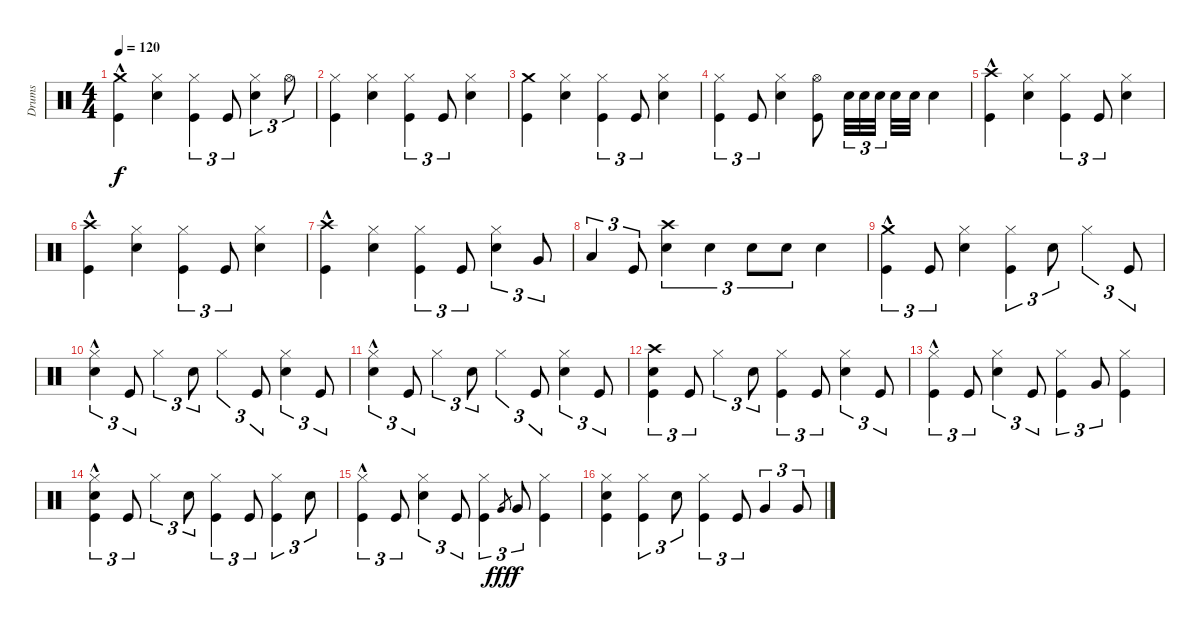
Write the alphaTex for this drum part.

\track ("Drums" "Drums") {instrument percussion}
\staff {score}
\articulation defaults
\ts (4 4)
\tempo 120
\clef neutral
\ks c
("Kick (hit)"{hac} "Crash medium (hit)").4{dy f} ("Snare (hit) 2" "Hi-Hat (closed)").4 ("Kick (hit)" "Hi-Hat (closed)").4{tu (3 2)} "Kick (hit)".8{tu (3 2)} ("Snare (hit) 2" "Hi-Hat (closed)").4{tu (3 2)} "Hi-Hat (open)".8{tu (3 2)} |
("Kick (hit)" "Hi-Hat (closed)").4 ("Snare (hit) 2" "Hi-Hat (closed)").4 ("Kick (hit)" "Hi-Hat (closed)").4{tu (3 2)} "Kick (hit)".8{tu (3 2)} ("Snare (hit) 2" "Hi-Hat (closed)").4 |
("Kick (hit)" "Crash medium (hit)").4 ("Snare (hit) 2" "Hi-Hat (closed)").4 ("Kick (hit)" "Hi-Hat (closed)").4{tu (3 2)} "Kick (hit)".8{tu (3 2)} ("Snare (hit) 2" "Hi-Hat (closed)").4 |
("Kick (hit)" "Hi-Hat (closed)").4{tu (3 2)} "Kick (hit)".8{tu (3 2)} ("Snare (hit) 2" "Hi-Hat (closed)").4 ("Kick (hit)" "Hi-Hat (open)").8 "Snare (hit) 2".32{tu (3 2)} "Snare (hit) 2".32{tu (3 2)} "Snare (hit) 2".32{tu (3 2)} "Snare (hit) 2".32 "Snare (hit) 2".32 "Snare (hit) 2".4 |
("Kick (hit)"{hac} "Crash high (hit)").4 ("Snare (hit) 2" "Hi-Hat (closed)").4 ("Kick (hit)" "Hi-Hat (closed)").4{tu (3 2)} "Kick (hit)".8{tu (3 2)} ("Snare (hit) 2" "Hi-Hat (closed)").4 |
("Kick (hit)"{hac} "Crash high (hit)").4 ("Snare (hit) 2" "Hi-Hat (closed)").4 ("Kick (hit)" "Hi-Hat (closed)").4{tu (3 2)} "Kick (hit)".8{tu (3 2)} ("Snare (hit) 2" "Hi-Hat (closed)").4 |
("Kick (hit)"{hac} "Crash high (hit)").4 ("Snare (hit) 2" "Hi-Hat (closed)").4 ("Kick (hit)" "Hi-Hat (closed)").4{tu (3 2)} "Kick (hit)".8{tu (3 2)} ("Snare (hit) 2" "Hi-Hat (closed)").4{tu (3 2)} "Very Low Tom (hit)".8{tu (3 2)} |
"Low Floor Tom (hit)".4{tu (3 2)} "Kick (hit)".8{tu (3 2)} ("Snare (hit) 2" "Crash high (hit)").4{tu (3 2)} "Snare (hit) 2".4{tu (3 2)} "Snare (hit) 2".8{tu (3 2)} "Snare (hit) 2".8{tu (3 2)} "Snare (hit) 2".4 |
("Kick (hit)" "Crash medium (hit)"{hac}).4{tu (3 2)} "Kick (hit)".8{tu (3 2)} ("Snare (hit) 2" "Hi-Hat (closed)").4 ("Kick (hit)" "Hi-Hat (closed)").4{tu (3 2)} "Snare (hit) 2".8{tu (3 2)} "Hi-Hat (closed)".4{tu (3 2)} "Kick (hit)".8{tu (3 2)} |
("Snare (hit) 2"{hac} "Hi-Hat (closed)"{hac}).4{tu (3 2)} "Kick (hit)".8{tu (3 2)} "Hi-Hat (closed)".4{tu (3 2)} "Snare (hit) 2".8{tu (3 2)} "Hi-Hat (closed)".4{tu (3 2)} "Kick (hit)".8{tu (3 2)} ("Snare (hit) 2" "Hi-Hat (closed)").4{tu (3 2)} "Kick (hit)".8{tu (3 2)} |
("Snare (hit) 2"{hac} "Hi-Hat (closed)"{hac}).4{tu (3 2)} "Kick (hit)".8{tu (3 2)} "Hi-Hat (closed)".4{tu (3 2)} "Snare (hit) 2".8{tu (3 2)} "Hi-Hat (closed)".4{tu (3 2)} "Kick (hit)".8{tu (3 2)} ("Snare (hit) 2" "Hi-Hat (closed)").4{tu (3 2)} "Kick (hit)".8{tu (3 2)} |
("Kick (hit)" "Snare (hit) 2" "Crash high (hit)").4{tu (3 2)} "Kick (hit)".8{tu (3 2)} "Hi-Hat (closed)".4{tu (3 2)} "Snare (hit) 2".8{tu (3 2)} ("Kick (hit)" "Hi-Hat (closed)").4{tu (3 2)} "Kick (hit)".8{tu (3 2)} ("Snare (hit) 2" "Hi-Hat (closed)").4{tu (3 2)} "Kick (hit)".8{tu (3 2)} |
("Kick (hit)" "Hi-Hat (closed)"{hac}).4{tu (3 2)} "Kick (hit)".8{tu (3 2)} ("Snare (hit) 2" "Hi-Hat (closed)").4{tu (3 2)} "Kick (hit)".8{tu (3 2)} ("Hi-Hat (closed)" "Kick (hit)").4{tu (3 2)} "Very Low Tom (hit)".8{tu (3 2)} ("Kick (hit)" "Hi-Hat (closed)").4 |
("Kick (hit)"{hac} "Snare (hit) 2"{hac} "Hi-Hat (closed)").4{tu (3 2)} "Kick (hit)".8{tu (3 2)} "Hi-Hat (closed)".4{tu (3 2)} "Snare (hit) 2".8{tu (3 2)} ("Kick (hit)" "Hi-Hat (closed)").4{tu (3 2)} "Kick (hit)".8{tu (3 2)} ("Kick (hit)" "Hi-Hat (closed)").4{tu (3 2)} "Snare (hit) 2".8{tu (3 2)} |
("Kick (hit)"{hac} "Hi-Hat (closed)").4{tu (3 2)} "Kick (hit)".8{tu (3 2)} ("Snare (hit) 2" "Hi-Hat (closed)").4{tu (3 2)} "Kick (hit)".8{tu (3 2)} ("Kick (hit)" "Hi-Hat (closed)").4{tu (3 2)} "Very Low Tom (hit)".8{gr dy fff} "Very Low Tom (hit)".8{tu (3 2) dy f} ("Kick (hit)" "Hi-Hat (closed)").4 |
("Kick (hit)" "Snare (hit) 2" "Hi-Hat (closed)").4 ("Kick (hit)" "Hi-Hat (closed)").4{tu (3 2)} "Snare (hit) 2".8{tu (3 2)} ("Kick (hit)" "Hi-Hat (closed)").4{tu (3 2)} "Kick (hit)".8{tu (3 2)} "Very Low Tom (hit)".4{tu (3 2)} "Very Low Tom (hit)".8{tu (3 2)}
